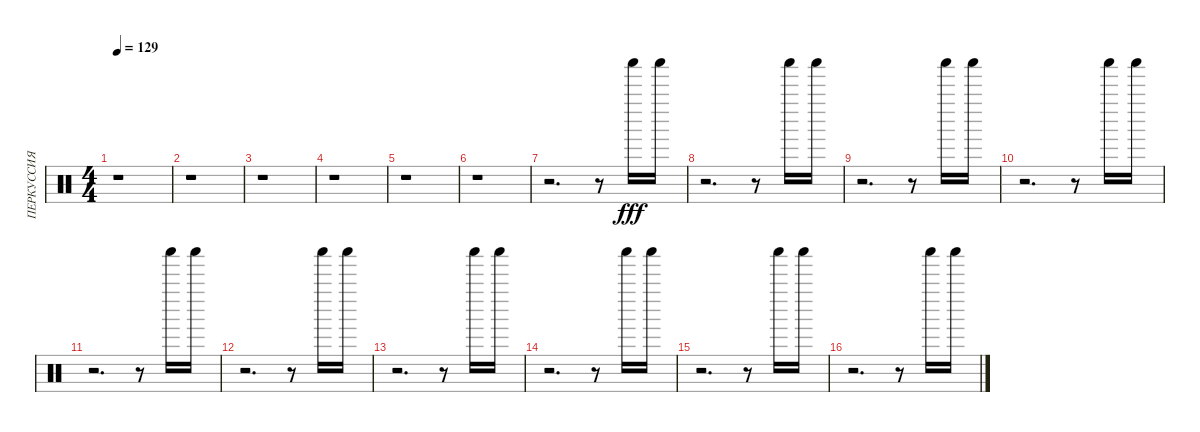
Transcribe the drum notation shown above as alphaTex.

\track ("ПЕРКУССИЯ 2" "ПЕРКУССИЯ ") {instrument percussion}
\staff {score}
\articulation defaults
\ts (4 4)
\tempo 129
\clef neutral
\ks c
r.1{dy fff} |
r.1 |
r.1 |
r.1 |
r.1 |
r.1 |
r.2{d} r.8 "Shaker (hit)".16 "Shaker (hit)".16 |
r.2{d} r.8 "Shaker (hit)".16 "Shaker (hit)".16 |
r.2{d} r.8 "Shaker (hit)".16 "Shaker (hit)".16 |
r.2{d} r.8 "Shaker (hit)".16 "Shaker (hit)".16 |
r.2{d} r.8 "Shaker (hit)".16 "Shaker (hit)".16 |
r.2{d} r.8 "Shaker (hit)".16 "Shaker (hit)".16 |
r.2{d} r.8 "Shaker (hit)".16 "Shaker (hit)".16 |
r.2{d} r.8 "Shaker (hit)".16 "Shaker (hit)".16 |
r.2{d} r.8 "Shaker (hit)".16 "Shaker (hit)".16 |
r.2{d} r.8 "Shaker (hit)".16 "Shaker (hit)".16
